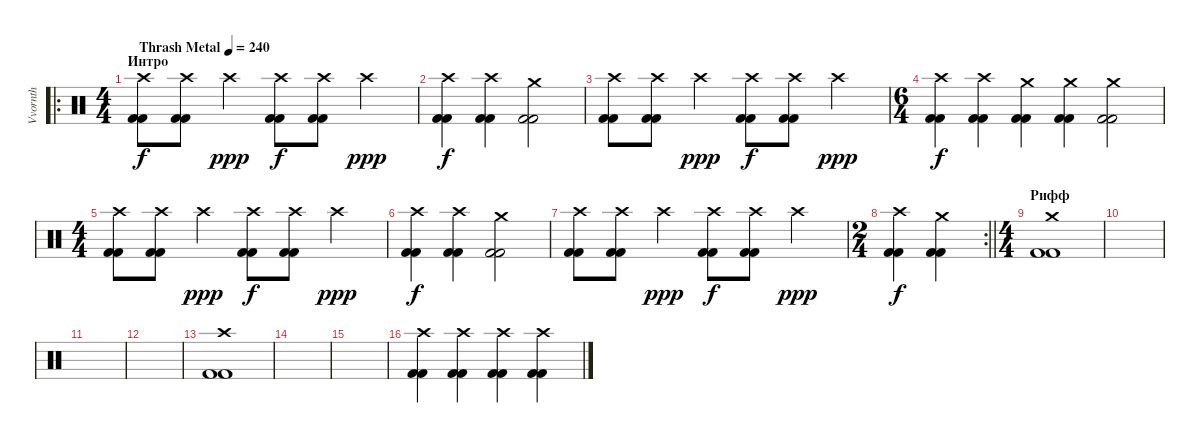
\track ("Vvornth" "Vvornth") {instrument percussion}
\staff {score}
\articulation defaults
\ro
\ts (4 4)
\section ("" "Интро")
\tempo (240 "Thrash Metal")
\clef neutral
\ks c
("Crash high (hit)" "Kick (hit) 2" "Kick (hit) 2").8{dy f} ("Crash high (hit)" "Kick (hit) 2" "Kick (hit) 2").8 "Crash high (hit)".4{dy ppp} ("Crash high (hit)" "Kick (hit) 2" "Kick (hit) 2").8{dy f} ("Crash high (hit)" "Kick (hit) 2" "Kick (hit) 2").8 "Crash high (hit)".4{dy ppp} |
("Crash high (hit)" "Kick (hit) 2" "Kick (hit) 2").4{dy f} ("Crash high (hit)" "Kick (hit) 2" "Kick (hit) 2").4 ("Crash medium (hit)" "Kick (hit) 2" "Kick (hit) 2").2 |
("Crash high (hit)" "Kick (hit) 2" "Kick (hit) 2").8 ("Crash high (hit)" "Kick (hit) 2" "Kick (hit) 2").8 "Crash high (hit)".4{dy ppp} ("Crash high (hit)" "Kick (hit) 2" "Kick (hit) 2").8{dy f} ("Crash high (hit)" "Kick (hit) 2" "Kick (hit) 2").8 "Crash high (hit)".4{dy ppp} |
\ts (6 4)
("Crash high (hit)" "Kick (hit) 2" "Kick (hit) 2").4{dy f} ("Crash high (hit)" "Kick (hit) 2" "Kick (hit) 2").4 ("Crash medium (hit)" "Kick (hit) 2" "Kick (hit) 2").4 ("Crash medium (hit)" "Kick (hit) 2" "Kick (hit) 2").4 ("Crash medium (hit)" "Kick (hit) 2" "Kick (hit) 2").2 |
\ts (4 4)
("Crash high (hit)" "Kick (hit) 2" "Kick (hit) 2").8 ("Crash high (hit)" "Kick (hit) 2" "Kick (hit) 2").8 "Crash high (hit)".4{dy ppp} ("Crash high (hit)" "Kick (hit) 2" "Kick (hit) 2").8{dy f} ("Crash high (hit)" "Kick (hit) 2" "Kick (hit) 2").8 "Crash high (hit)".4{dy ppp} |
("Crash high (hit)" "Kick (hit) 2" "Kick (hit) 2").4{dy f} ("Crash high (hit)" "Kick (hit) 2" "Kick (hit) 2").4 ("Crash medium (hit)" "Kick (hit) 2" "Kick (hit) 2").2 |
("Crash high (hit)" "Kick (hit) 2" "Kick (hit) 2").8 ("Crash high (hit)" "Kick (hit) 2" "Kick (hit) 2").8 "Crash high (hit)".4{dy ppp} ("Crash high (hit)" "Kick (hit) 2" "Kick (hit) 2").8{dy f} ("Crash high (hit)" "Kick (hit) 2" "Kick (hit) 2").8 "Crash high (hit)".4{dy ppp} |
\rc 2
\ts (2 4)
\barLineRight lightlight
("Crash high (hit)" "Kick (hit) 2" "Kick (hit) 2").4{dy f} ("Crash medium (hit)" "Kick (hit) 2" "Kick (hit) 2").4 |
\ts (4 4)
\section ("" "Рифф")
("Crash medium (hit)" "Kick (hit) 2" "Kick (hit) 2").1 |
|
|
|
("Crash high (hit)" "Kick (hit) 2" "Kick (hit) 2").1 |
|
|
("Crash high (hit)" "Kick (hit) 2" "Kick (hit) 2").4 ("Crash high (hit)" "Kick (hit) 2" "Kick (hit) 2").4 ("Crash high (hit)" "Kick (hit) 2" "Kick (hit) 2").4 ("Crash high (hit)" "Kick (hit) 2" "Kick (hit) 2").4
